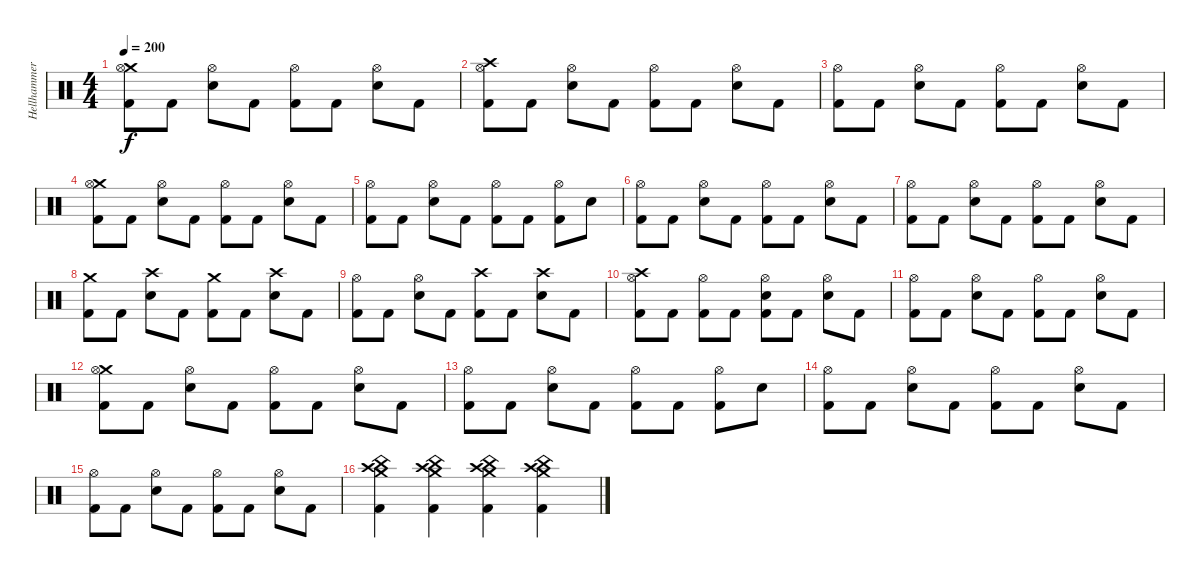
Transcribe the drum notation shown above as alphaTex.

\track ("Hellhammer" "Hellhammer") {instrument percussion}
\staff {score}
\articulation defaults
\ts (4 4)
\tempo 200
\clef neutral
\ks c
("Crash medium (hit)" "Hi-Hat (open)" "Kick (hit) 2").8{dy f} "Kick (hit) 2".8 ("Hi-Hat (open)" "Electric Snare (hit)").8 "Kick (hit) 2".8 ("Hi-Hat (open)" "Kick (hit) 2").8 "Kick (hit) 2".8 ("Hi-Hat (open)" "Electric Snare (hit)").8 "Kick (hit) 2".8 |
("Crash high (hit)" "Hi-Hat (open)" "Kick (hit) 2").8 "Kick (hit) 2".8 ("Hi-Hat (open)" "Electric Snare (hit)").8 "Kick (hit) 2".8 ("Hi-Hat (open)" "Kick (hit) 2").8 "Kick (hit) 2".8 ("Hi-Hat (open)" "Electric Snare (hit)").8 "Kick (hit) 2".8 |
("Hi-Hat (open)" "Kick (hit) 2").8 "Kick (hit) 2".8 ("Hi-Hat (open)" "Electric Snare (hit)").8 "Kick (hit) 2".8 ("Hi-Hat (open)" "Kick (hit) 2").8 "Kick (hit) 2".8 ("Hi-Hat (open)" "Electric Snare (hit)").8 "Kick (hit) 2".8 |
("Crash medium (hit)" "Hi-Hat (open)" "Kick (hit) 2").8 "Kick (hit) 2".8 ("Hi-Hat (open)" "Electric Snare (hit)").8 "Kick (hit) 2".8 ("Hi-Hat (open)" "Kick (hit) 2").8 "Kick (hit) 2".8 ("Hi-Hat (open)" "Electric Snare (hit)").8 "Kick (hit) 2".8 |
("Hi-Hat (open)" "Kick (hit) 2").8 "Kick (hit) 2".8 ("Hi-Hat (open)" "Electric Snare (hit)").8 "Kick (hit) 2".8 ("Hi-Hat (open)" "Kick (hit) 2").8 "Kick (hit) 2".8 ("Hi-Hat (open)" "Kick (hit) 2").8 "Electric Snare (hit)".8 |
("Hi-Hat (open)" "Kick (hit) 2").8 "Kick (hit) 2".8 ("Hi-Hat (open)" "Electric Snare (hit)").8 "Kick (hit) 2".8 ("Hi-Hat (open)" "Kick (hit) 2").8 "Kick (hit) 2".8 ("Hi-Hat (open)" "Electric Snare (hit)").8 "Kick (hit) 2".8 |
("Hi-Hat (open)" "Kick (hit) 2").8 "Kick (hit) 2".8 ("Hi-Hat (open)" "Electric Snare (hit)").8 "Kick (hit) 2".8 ("Hi-Hat (open)" "Kick (hit) 2").8 "Kick (hit) 2".8 ("Hi-Hat (open)" "Electric Snare (hit)").8 "Kick (hit) 2".8 |
("Crash medium (hit)" "Kick (hit) 2").8 "Kick (hit) 2".8 ("Crash high (hit)" "Electric Snare (hit)").8 "Kick (hit) 2".8 ("Crash medium (hit)" "Kick (hit) 2").8 "Kick (hit) 2".8 ("Crash high (hit)" "Electric Snare (hit)").8 "Kick (hit) 2".8 |
("Hi-Hat (open)" "Kick (hit) 2").8 "Kick (hit) 2".8 ("Hi-Hat (open)" "Electric Snare (hit)").8 "Kick (hit) 2".8 ("Crash high (hit)" "Kick (hit) 2").8 "Kick (hit) 2".8 ("Crash high (hit)" "Electric Snare (hit)").8 "Kick (hit) 2".8 |
("Crash high (hit)" "Hi-Hat (open)" "Kick (hit) 2").8 "Kick (hit) 2".8 ("Hi-Hat (open)" "Kick (hit) 2").8 "Kick (hit) 2".8 ("Hi-Hat (open)" "Electric Snare (hit)" "Kick (hit) 2").8 "Kick (hit) 2".8 ("Hi-Hat (open)" "Electric Snare (hit)").8 "Kick (hit) 2".8 |
("Hi-Hat (open)" "Kick (hit) 2").8 "Kick (hit) 2".8 ("Hi-Hat (open)" "Electric Snare (hit)").8 "Kick (hit) 2".8 ("Hi-Hat (open)" "Kick (hit) 2").8 "Kick (hit) 2".8 ("Hi-Hat (open)" "Electric Snare (hit)").8 "Kick (hit) 2".8 |
("Crash medium (hit)" "Hi-Hat (open)" "Kick (hit) 2").8 "Kick (hit) 2".8 ("Hi-Hat (open)" "Electric Snare (hit)").8 "Kick (hit) 2".8 ("Hi-Hat (open)" "Kick (hit) 2").8 "Kick (hit) 2".8 ("Hi-Hat (open)" "Electric Snare (hit)").8 "Kick (hit) 2".8 |
("Hi-Hat (open)" "Kick (hit) 2").8 "Kick (hit) 2".8 ("Hi-Hat (open)" "Electric Snare (hit)").8 "Kick (hit) 2".8 ("Hi-Hat (open)" "Kick (hit) 2").8 "Kick (hit) 2".8 ("Hi-Hat (open)" "Kick (hit) 2").8 "Electric Snare (hit)".8 |
("Hi-Hat (open)" "Kick (hit) 2").8 "Kick (hit) 2".8 ("Hi-Hat (open)" "Electric Snare (hit)").8 "Kick (hit) 2".8 ("Hi-Hat (open)" "Kick (hit) 2").8 "Kick (hit) 2".8 ("Hi-Hat (open)" "Electric Snare (hit)").8 "Kick (hit) 2".8 |
("Hi-Hat (open)" "Kick (hit) 2").8 "Kick (hit) 2".8 ("Hi-Hat (open)" "Electric Snare (hit)").8 "Kick (hit) 2".8 ("Hi-Hat (open)" "Kick (hit) 2").8 "Kick (hit) 2".8 ("Hi-Hat (open)" "Electric Snare (hit)").8 "Kick (hit) 2".8 |
("China (hit)" "Crash medium (hit)" "Crash high (hit)" "Kick (hit) 2").4 ("China (hit)" "Crash medium (hit)" "Crash high (hit)" "Kick (hit) 2").4 ("China (hit)" "Crash medium (hit)" "Crash high (hit)" "Kick (hit) 2").4 ("China (hit)" "Crash medium (hit)" "Crash high (hit)" "Kick (hit) 2").4
